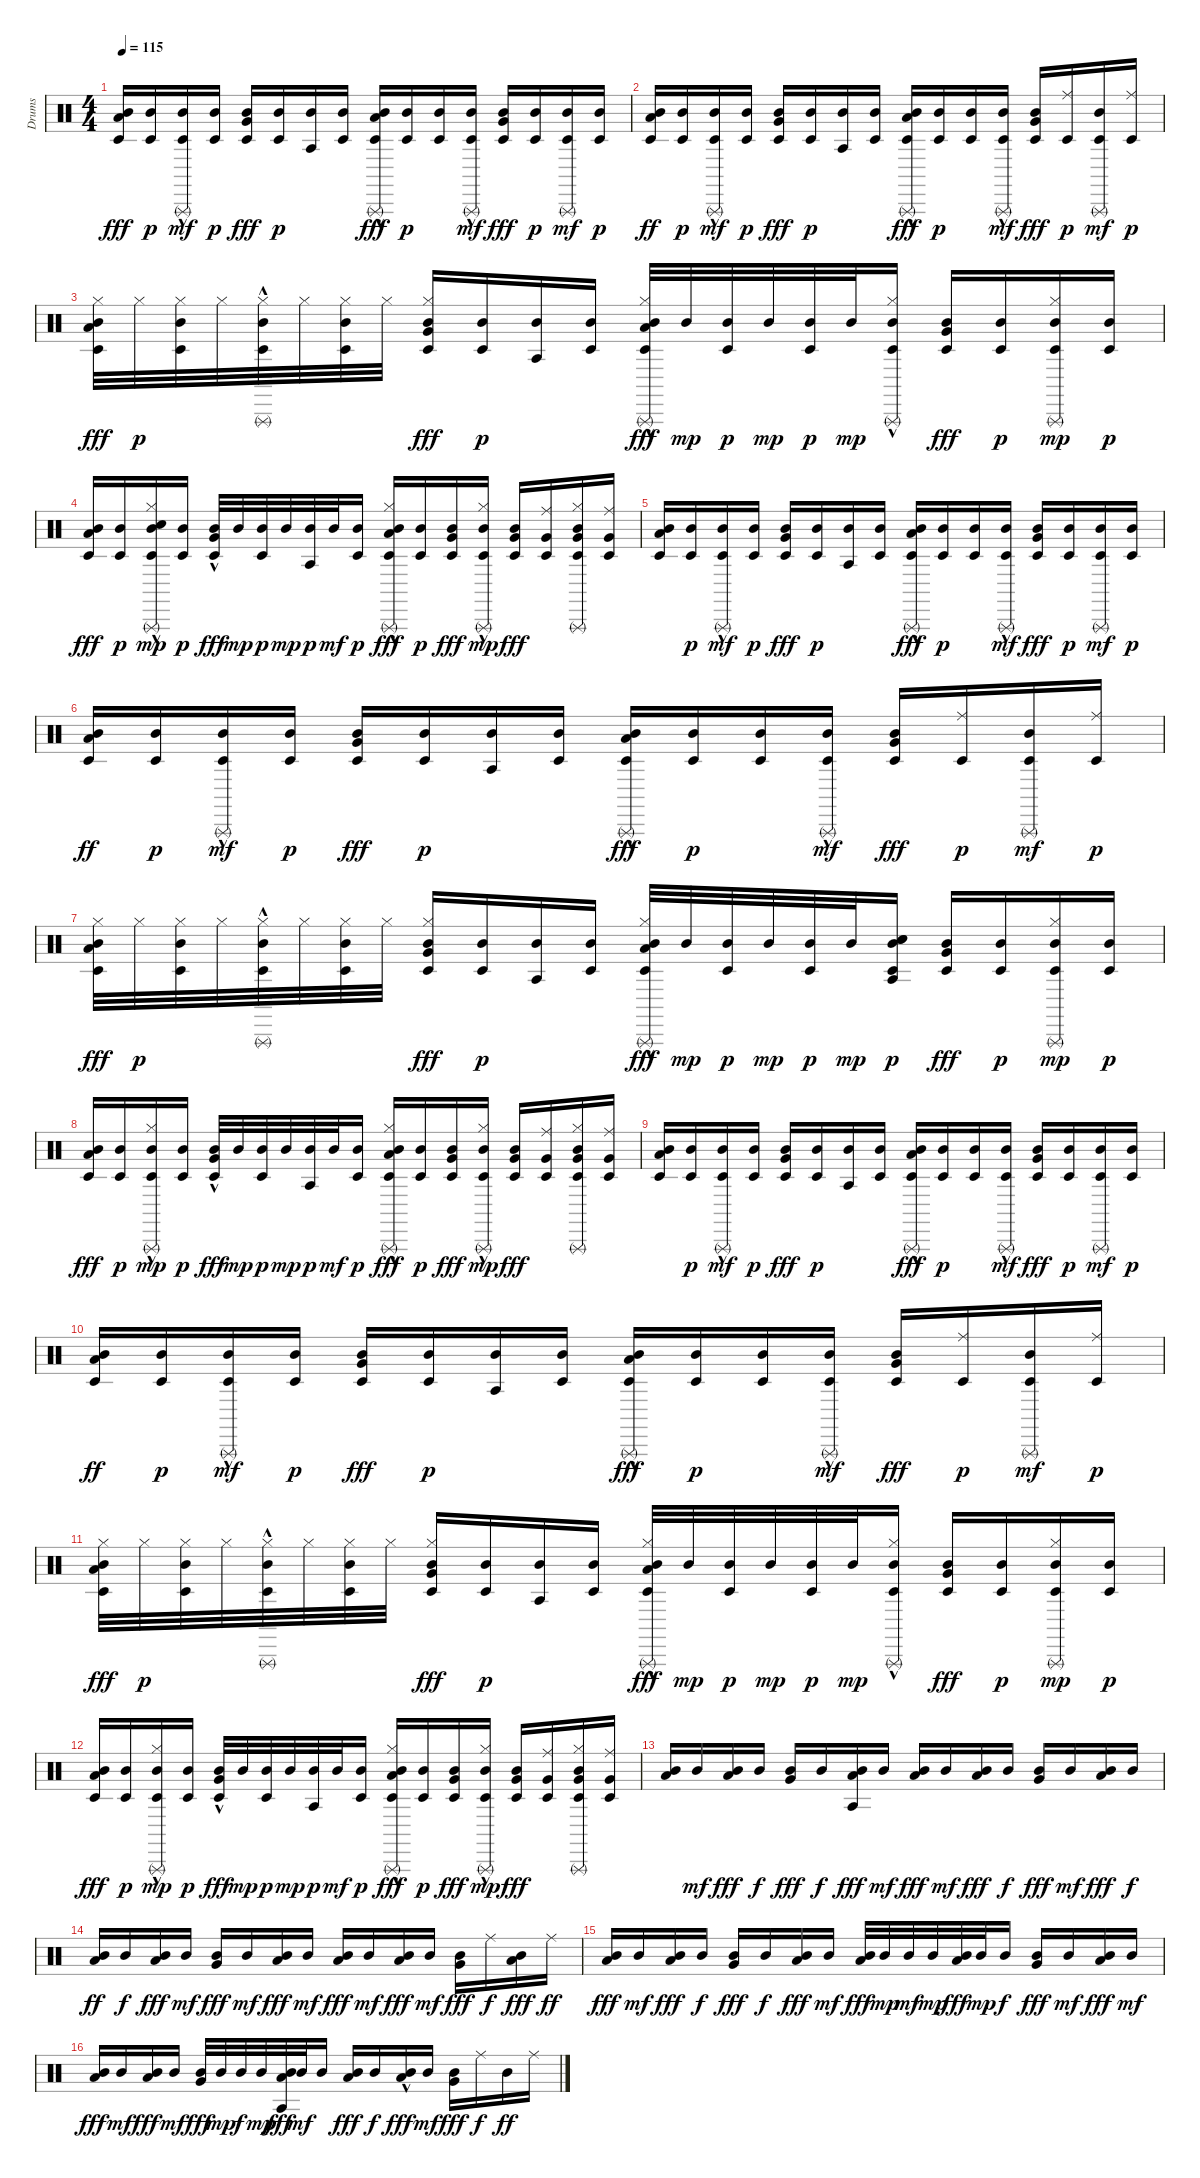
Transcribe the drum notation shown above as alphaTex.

\track ("Drums" "Drums") {instrument percussion}
\staff {score}
\articulation defaults
\ts (4 4)
\tempo 115
\clef neutral
\ks c
("Mid Tom (hit)" "Timbale low (hit)" "Low Floor Tom (hit)").16{dy fff} ("Mid Tom (hit)" "Timbale low (hit)").16{dy p} ("Mid Tom (hit)" "Timbale low (hit)" "Triangle (rnute)"{hac}).16{dy mf} ("Mid Tom (hit)" "Timbale low (hit)").16{dy p} ("Mid Tom (hit)" "Timbale low (hit)" "Very Low Tom (hit)").16{dy fff} ("Mid Tom (hit)" "Timbale low (hit)").16{dy p} ("Mid Tom (hit)" "Agogo tow (hit)").16 ("Mid Tom (hit)" "Timbale low (hit)").16 ("Mid Tom (hit)" "Timbale low (hit)" "Triangle (rnute)"{hac} "Low Floor Tom (hit)").16{dy fff} ("Mid Tom (hit)" "Timbale low (hit)").16{dy p} ("Mid Tom (hit)" "Timbale low (hit)").16 ("Mid Tom (hit)" "Timbale low (hit)" "Triangle (rnute)"{hac}).16{dy mf} ("Mid Tom (hit)" "Timbale low (hit)" "Very Low Tom (hit)").16{dy fff} ("Mid Tom (hit)" "Timbale low (hit)").16{dy p} ("Mid Tom (hit)" "Timbale low (hit)" "Triangle (rnute)").16{dy mf} ("Mid Tom (hit)" "Timbale low (hit)").16{dy p} |
("Mid Tom (hit)" "Timbale low (hit)" "Low Floor Tom (hit)").16{dy ff} ("Mid Tom (hit)" "Timbale low (hit)").16{dy p} ("Mid Tom (hit)" "Timbale low (hit)" "Triangle (rnute)"{hac}).16{dy mf} ("Mid Tom (hit)" "Timbale low (hit)").16{dy p} ("Mid Tom (hit)" "Timbale low (hit)" "Very Low Tom (hit)").16{dy fff} ("Mid Tom (hit)" "Timbale low (hit)").16{dy p} ("Mid Tom (hit)" "Agogo tow (hit)").16 ("Mid Tom (hit)" "Timbale low (hit)").16 ("Mid Tom (hit)" "Timbale low (hit)" "Triangle (rnute)"{hac} "Low Floor Tom (hit)").16{dy fff} ("Mid Tom (hit)" "Timbale low (hit)").16{dy p} ("Mid Tom (hit)" "Timbale low (hit)").16 ("Mid Tom (hit)" "Timbale low (hit)" "Triangle (rnute)"{hac}).16{dy mf} ("Mid Tom (hit)" "Timbale low (hit)" "Very Low Tom (hit)").16{dy fff} ("Ride (middle)" "Timbale low (hit)").16{dy p} ("Mid Tom (hit)" "Timbale low (hit)" "Triangle (rnute)").16{dy mf} ("Ride (middle)" "Timbale low (hit)").16{dy p} |
("Mid Tom (hit)" "Timbale low (hit)" "Hi-Hat (closed)" "Low Floor Tom (hit)").32{dy fff} "Hi-Hat (closed)".32{dy p} ("Mid Tom (hit)" "Timbale low (hit)" "Hi-Hat (closed)").32 "Hi-Hat (closed)".32 ("Mid Tom (hit)" "Timbale low (hit)" "Triangle (rnute)"{hac} "Hi-Hat (closed)").32 "Hi-Hat (closed)".32 ("Mid Tom (hit)" "Timbale low (hit)" "Hi-Hat (closed)").32 "Hi-Hat (closed)".32 ("Mid Tom (hit)" "Timbale low (hit)" "Hi-Hat (closed)" "Very Low Tom (hit)").16{dy fff} ("Mid Tom (hit)" "Timbale low (hit)").16{dy p} ("Mid Tom (hit)" "Agogo tow (hit)").16 ("Mid Tom (hit)" "Timbale low (hit)").16 ("Mid Tom (hit)" "Timbale low (hit)" "Triangle (rnute)"{hac} "Hi-Hat (closed)"{hac} "Low Floor Tom (hit)").32{dy fff} "Mid Tom (hit)".32{dy mp} ("Mid Tom (hit)" "Timbale low (hit)").32{dy p} "Mid Tom (hit)".32{dy mp} ("Mid Tom (hit)" "Timbale low (hit)").32{dy p} "Mid Tom (hit)".32{dy mp} ("Mid Tom (hit)" "Timbale low (hit)" "Triangle (rnute)"{hac} "Hi-Hat (closed)"{hac}).16 ("Mid Tom (hit)" "Timbale low (hit)" "Very Low Tom (hit)").16{dy fff} ("Mid Tom (hit)" "Timbale low (hit)").16{dy p} ("Mid Tom (hit)" "Timbale low (hit)" "Triangle (rnute)" "Hi-Hat (closed)").16{dy mp} ("Mid Tom (hit)" "Timbale low (hit)").16{dy p} |
("Mid Tom (hit)" "Timbale low (hit)" "Low Floor Tom (hit)").16{dy fff} ("Mid Tom (hit)" "Timbale low (hit)").16{dy p} ("Mid Tom (hit)" "Timbale low (hit)" "Snare (hit)" "Triangle (rnute)"{hac} "Hi-Hat (closed)"{hac}).16{dy mp} ("Mid Tom (hit)" "Timbale low (hit)").16{dy p} ("Mid Tom (hit)" "Timbale low (hit)" "Very Low Tom (hit)"{hac}).32{dy fff} "Mid Tom (hit)".32{dy mp} ("Mid Tom (hit)" "Timbale low (hit)").32{dy p} "Mid Tom (hit)".32{dy mp} ("Mid Tom (hit)" "Agogo tow (hit)").32{dy p} "Mid Tom (hit)".32{dy mf} ("Mid Tom (hit)" "Timbale low (hit)").16{dy p} ("Mid Tom (hit)" "Timbale low (hit)" "Triangle (rnute)"{hac} "Hi-Hat (closed)"{hac} "Low Floor Tom (hit)").16{dy fff} ("Mid Tom (hit)" "Timbale low (hit)").16{dy p} ("Mid Tom (hit)" "Timbale low (hit)" "Very Low Tom (hit)").16{dy fff} ("Mid Tom (hit)" "Timbale low (hit)" "Triangle (rnute)"{hac} "Hi-Hat (closed)"{hac}).16{dy mp} ("Mid Tom (hit)" "Timbale low (hit)" "Very Low Tom (hit)").16{dy fff} ("Ride (middle)" "Timbale low (hit)" "Very Low Tom (hit)").16 ("Mid Tom (hit)" "Timbale low (hit)" "Triangle (rnute)" "Hi-Hat (closed)" "Very Low Tom (hit)").16 ("Ride (middle)" "Timbale low (hit)" "Very Low Tom (hit)").16 |
("Mid Tom (hit)" "Timbale low (hit)" "Low Floor Tom (hit)").16 ("Mid Tom (hit)" "Timbale low (hit)").16{dy p} ("Mid Tom (hit)" "Timbale low (hit)" "Triangle (rnute)"{hac}).16{dy mf} ("Mid Tom (hit)" "Timbale low (hit)").16{dy p} ("Mid Tom (hit)" "Timbale low (hit)" "Very Low Tom (hit)").16{dy fff} ("Mid Tom (hit)" "Timbale low (hit)").16{dy p} ("Mid Tom (hit)" "Agogo tow (hit)").16 ("Mid Tom (hit)" "Timbale low (hit)").16 ("Mid Tom (hit)" "Timbale low (hit)" "Triangle (rnute)"{hac} "Low Floor Tom (hit)").16{dy fff} ("Mid Tom (hit)" "Timbale low (hit)").16{dy p} ("Mid Tom (hit)" "Timbale low (hit)").16 ("Mid Tom (hit)" "Timbale low (hit)" "Triangle (rnute)"{hac}).16{dy mf} ("Mid Tom (hit)" "Timbale low (hit)" "Very Low Tom (hit)").16{dy fff} ("Mid Tom (hit)" "Timbale low (hit)").16{dy p} ("Mid Tom (hit)" "Timbale low (hit)" "Triangle (rnute)").16{dy mf} ("Mid Tom (hit)" "Timbale low (hit)").16{dy p} |
("Mid Tom (hit)" "Timbale low (hit)" "Low Floor Tom (hit)").16{dy ff} ("Mid Tom (hit)" "Timbale low (hit)").16{dy p} ("Mid Tom (hit)" "Timbale low (hit)" "Triangle (rnute)"{hac}).16{dy mf} ("Mid Tom (hit)" "Timbale low (hit)").16{dy p} ("Mid Tom (hit)" "Timbale low (hit)" "Very Low Tom (hit)").16{dy fff} ("Mid Tom (hit)" "Timbale low (hit)").16{dy p} ("Mid Tom (hit)" "Agogo tow (hit)").16 ("Mid Tom (hit)" "Timbale low (hit)").16 ("Mid Tom (hit)" "Timbale low (hit)" "Triangle (rnute)"{hac} "Low Floor Tom (hit)").16{dy fff} ("Mid Tom (hit)" "Timbale low (hit)").16{dy p} ("Mid Tom (hit)" "Timbale low (hit)").16 ("Mid Tom (hit)" "Timbale low (hit)" "Triangle (rnute)"{hac}).16{dy mf} ("Mid Tom (hit)" "Timbale low (hit)" "Very Low Tom (hit)").16{dy fff} ("Ride (middle)" "Timbale low (hit)").16{dy p} ("Mid Tom (hit)" "Timbale low (hit)" "Triangle (rnute)").16{dy mf} ("Ride (middle)" "Timbale low (hit)").16{dy p} |
("Mid Tom (hit)" "Timbale low (hit)" "Hi-Hat (closed)" "Low Floor Tom (hit)").32{dy fff} "Hi-Hat (closed)".32{dy p} ("Mid Tom (hit)" "Timbale low (hit)" "Hi-Hat (closed)").32 "Hi-Hat (closed)".32 ("Mid Tom (hit)" "Timbale low (hit)" "Triangle (rnute)"{hac} "Hi-Hat (closed)").32 "Hi-Hat (closed)".32 ("Mid Tom (hit)" "Timbale low (hit)" "Hi-Hat (closed)").32 "Hi-Hat (closed)".32 ("Mid Tom (hit)" "Timbale low (hit)" "Hi-Hat (closed)" "Very Low Tom (hit)").16{dy fff} ("Mid Tom (hit)" "Timbale low (hit)").16{dy p} ("Mid Tom (hit)" "Agogo tow (hit)").16 ("Mid Tom (hit)" "Timbale low (hit)").16 ("Mid Tom (hit)" "Timbale low (hit)" "Triangle (rnute)"{hac} "Hi-Hat (closed)"{hac} "Low Floor Tom (hit)").32{dy fff} "Mid Tom (hit)".32{dy mp} ("Mid Tom (hit)" "Timbale low (hit)").32{dy p} "Mid Tom (hit)".32{dy mp} ("Mid Tom (hit)" "Timbale low (hit)").32{dy p} "Mid Tom (hit)".32{dy mp} ("Mid Tom (hit)" "Timbale low (hit)" "Snare (hit)" "Snare (hit)" "Agogo tow (hit)").16{dy p} ("Mid Tom (hit)" "Timbale low (hit)" "Very Low Tom (hit)").16{dy fff} ("Mid Tom (hit)" "Timbale low (hit)").16{dy p} ("Mid Tom (hit)" "Timbale low (hit)" "Triangle (rnute)" "Hi-Hat (closed)").16{dy mp} ("Mid Tom (hit)" "Timbale low (hit)").16{dy p} |
("Mid Tom (hit)" "Timbale low (hit)" "Low Floor Tom (hit)").16{dy fff} ("Mid Tom (hit)" "Timbale low (hit)").16{dy p} ("Mid Tom (hit)" "Timbale low (hit)" "Triangle (rnute)"{hac} "Hi-Hat (closed)"{hac}).16{dy mp} ("Mid Tom (hit)" "Timbale low (hit)").16{dy p} ("Mid Tom (hit)" "Timbale low (hit)" "Very Low Tom (hit)"{hac}).32{dy fff} "Mid Tom (hit)".32{dy mp} ("Mid Tom (hit)" "Timbale low (hit)").32{dy p} "Mid Tom (hit)".32{dy mp} ("Mid Tom (hit)" "Agogo tow (hit)").32{dy p} "Mid Tom (hit)".32{dy mf} ("Mid Tom (hit)" "Timbale low (hit)").16{dy p} ("Mid Tom (hit)" "Timbale low (hit)" "Triangle (rnute)"{hac} "Hi-Hat (closed)"{hac} "Low Floor Tom (hit)").16{dy fff} ("Mid Tom (hit)" "Timbale low (hit)").16{dy p} ("Mid Tom (hit)" "Timbale low (hit)" "Very Low Tom (hit)").16{dy fff} ("Mid Tom (hit)" "Timbale low (hit)" "Triangle (rnute)"{hac} "Hi-Hat (closed)"{hac}).16{dy mp} ("Mid Tom (hit)" "Timbale low (hit)" "Very Low Tom (hit)").16{dy fff} ("Ride (middle)" "Timbale low (hit)" "Very Low Tom (hit)").16 ("Mid Tom (hit)" "Timbale low (hit)" "Triangle (rnute)" "Hi-Hat (closed)" "Very Low Tom (hit)").16 ("Ride (middle)" "Timbale low (hit)" "Very Low Tom (hit)").16 |
("Mid Tom (hit)" "Timbale low (hit)" "Low Floor Tom (hit)").16 ("Mid Tom (hit)" "Timbale low (hit)").16{dy p} ("Mid Tom (hit)" "Timbale low (hit)" "Triangle (rnute)"{hac}).16{dy mf} ("Mid Tom (hit)" "Timbale low (hit)").16{dy p} ("Mid Tom (hit)" "Timbale low (hit)" "Very Low Tom (hit)").16{dy fff} ("Mid Tom (hit)" "Timbale low (hit)").16{dy p} ("Mid Tom (hit)" "Agogo tow (hit)").16 ("Mid Tom (hit)" "Timbale low (hit)").16 ("Mid Tom (hit)" "Timbale low (hit)" "Triangle (rnute)"{hac} "Low Floor Tom (hit)").16{dy fff} ("Mid Tom (hit)" "Timbale low (hit)").16{dy p} ("Mid Tom (hit)" "Timbale low (hit)").16 ("Mid Tom (hit)" "Timbale low (hit)" "Triangle (rnute)"{hac}).16{dy mf} ("Mid Tom (hit)" "Timbale low (hit)" "Very Low Tom (hit)").16{dy fff} ("Mid Tom (hit)" "Timbale low (hit)").16{dy p} ("Mid Tom (hit)" "Timbale low (hit)" "Triangle (rnute)").16{dy mf} ("Mid Tom (hit)" "Timbale low (hit)").16{dy p} |
("Mid Tom (hit)" "Timbale low (hit)" "Low Floor Tom (hit)").16{dy ff} ("Mid Tom (hit)" "Timbale low (hit)").16{dy p} ("Mid Tom (hit)" "Timbale low (hit)" "Triangle (rnute)"{hac}).16{dy mf} ("Mid Tom (hit)" "Timbale low (hit)").16{dy p} ("Mid Tom (hit)" "Timbale low (hit)" "Very Low Tom (hit)").16{dy fff} ("Mid Tom (hit)" "Timbale low (hit)").16{dy p} ("Mid Tom (hit)" "Agogo tow (hit)").16 ("Mid Tom (hit)" "Timbale low (hit)").16 ("Mid Tom (hit)" "Timbale low (hit)" "Triangle (rnute)"{hac} "Low Floor Tom (hit)").16{dy fff} ("Mid Tom (hit)" "Timbale low (hit)").16{dy p} ("Mid Tom (hit)" "Timbale low (hit)").16 ("Mid Tom (hit)" "Timbale low (hit)" "Triangle (rnute)"{hac}).16{dy mf} ("Mid Tom (hit)" "Timbale low (hit)" "Very Low Tom (hit)").16{dy fff} ("Ride (middle)" "Timbale low (hit)").16{dy p} ("Mid Tom (hit)" "Timbale low (hit)" "Triangle (rnute)").16{dy mf} ("Ride (middle)" "Timbale low (hit)").16{dy p} |
("Mid Tom (hit)" "Timbale low (hit)" "Hi-Hat (closed)" "Low Floor Tom (hit)").32{dy fff} "Hi-Hat (closed)".32{dy p} ("Mid Tom (hit)" "Timbale low (hit)" "Hi-Hat (closed)").32 "Hi-Hat (closed)".32 ("Mid Tom (hit)" "Timbale low (hit)" "Triangle (rnute)"{hac} "Hi-Hat (closed)").32 "Hi-Hat (closed)".32 ("Mid Tom (hit)" "Timbale low (hit)" "Hi-Hat (closed)").32 "Hi-Hat (closed)".32 ("Mid Tom (hit)" "Timbale low (hit)" "Hi-Hat (closed)" "Very Low Tom (hit)").16{dy fff} ("Mid Tom (hit)" "Timbale low (hit)").16{dy p} ("Mid Tom (hit)" "Agogo tow (hit)").16 ("Mid Tom (hit)" "Timbale low (hit)").16 ("Mid Tom (hit)" "Timbale low (hit)" "Triangle (rnute)"{hac} "Hi-Hat (closed)"{hac} "Low Floor Tom (hit)").32{dy fff} "Mid Tom (hit)".32{dy mp} ("Mid Tom (hit)" "Timbale low (hit)").32{dy p} "Mid Tom (hit)".32{dy mp} ("Mid Tom (hit)" "Timbale low (hit)").32{dy p} "Mid Tom (hit)".32{dy mp} ("Mid Tom (hit)" "Timbale low (hit)" "Triangle (rnute)"{hac} "Hi-Hat (closed)"{hac}).16 ("Mid Tom (hit)" "Timbale low (hit)" "Very Low Tom (hit)").16{dy fff} ("Mid Tom (hit)" "Timbale low (hit)").16{dy p} ("Mid Tom (hit)" "Timbale low (hit)" "Triangle (rnute)" "Hi-Hat (closed)").16{dy mp} ("Mid Tom (hit)" "Timbale low (hit)").16{dy p} |
("Mid Tom (hit)" "Timbale low (hit)" "Low Floor Tom (hit)").16{dy fff} ("Mid Tom (hit)" "Timbale low (hit)").16{dy p} ("Mid Tom (hit)" "Timbale low (hit)" "Triangle (rnute)"{hac} "Hi-Hat (closed)"{hac}).16{dy mp} ("Mid Tom (hit)" "Timbale low (hit)").16{dy p} ("Mid Tom (hit)" "Timbale low (hit)" "Very Low Tom (hit)"{hac}).32{dy fff} "Mid Tom (hit)".32{dy mp} ("Mid Tom (hit)" "Timbale low (hit)").32{dy p} "Mid Tom (hit)".32{dy mp} ("Mid Tom (hit)" "Agogo tow (hit)").32{dy p} "Mid Tom (hit)".32{dy mf} ("Mid Tom (hit)" "Timbale low (hit)").16{dy p} ("Mid Tom (hit)" "Timbale low (hit)" "Triangle (rnute)"{hac} "Hi-Hat (closed)"{hac} "Low Floor Tom (hit)").16{dy fff} ("Mid Tom (hit)" "Timbale low (hit)").16{dy p} ("Mid Tom (hit)" "Timbale low (hit)" "Very Low Tom (hit)").16{dy fff} ("Mid Tom (hit)" "Timbale low (hit)" "Triangle (rnute)"{hac} "Hi-Hat (closed)"{hac}).16{dy mp} ("Mid Tom (hit)" "Timbale low (hit)" "Very Low Tom (hit)").16{dy fff} ("Ride (middle)" "Timbale low (hit)" "Very Low Tom (hit)").16 ("Mid Tom (hit)" "Timbale low (hit)" "Triangle (rnute)" "Hi-Hat (closed)" "Very Low Tom (hit)").16 ("Ride (middle)" "Timbale low (hit)" "Very Low Tom (hit)").16 |
("Mid Tom (hit)" "Low Floor Tom (hit)").16 "Mid Tom (hit)".16{dy mf} ("Mid Tom (hit)" "Low Floor Tom (hit)").16{dy fff} "Mid Tom (hit)".16{dy f} ("Mid Tom (hit)" "Very Low Tom (hit)").16{dy fff} "Mid Tom (hit)".16{dy f} ("Mid Tom (hit)" "Agogo tow (hit)" "Low Floor Tom (hit)").16{dy fff} "Mid Tom (hit)".16{dy mf} ("Mid Tom (hit)" "Low Floor Tom (hit)").16{dy fff} "Mid Tom (hit)".16{dy mf} ("Mid Tom (hit)" "Low Floor Tom (hit)").16{dy fff} "Mid Tom (hit)".16{dy f} ("Mid Tom (hit)" "Very Low Tom (hit)").16{dy fff} "Mid Tom (hit)".16{dy mf} ("Mid Tom (hit)" "Low Floor Tom (hit)").16{dy fff} "Mid Tom (hit)".16{dy f} |
("Mid Tom (hit)" "Low Floor Tom (hit)").16{dy ff} "Mid Tom (hit)".16{dy f} ("Mid Tom (hit)" "Low Floor Tom (hit)").16{dy fff} "Mid Tom (hit)".16{dy mf} ("Mid Tom (hit)" "Very Low Tom (hit)").16{dy fff} "Mid Tom (hit)".16{dy mf} ("Mid Tom (hit)" "Low Floor Tom (hit)").16{dy fff} "Mid Tom (hit)".16{dy mf} ("Mid Tom (hit)" "Low Floor Tom (hit)").16{dy fff} "Mid Tom (hit)".16{dy mf} ("Mid Tom (hit)" "Low Floor Tom (hit)").16{dy fff} "Mid Tom (hit)".16{dy mf} ("Mid Tom (hit)" "Very Low Tom (hit)").16{dy fff} "Ride (middle)".16{dy f} ("Mid Tom (hit)" "Low Floor Tom (hit)").16{dy fff} "Ride (middle)".16{dy ff} |
("Mid Tom (hit)" "Low Floor Tom (hit)").16{dy fff} "Mid Tom (hit)".16{dy mf} ("Mid Tom (hit)" "Low Floor Tom (hit)").16{dy fff} "Mid Tom (hit)".16{dy f} ("Mid Tom (hit)" "Very Low Tom (hit)").16{dy fff} "Mid Tom (hit)".16{dy f} ("Mid Tom (hit)" "Low Floor Tom (hit)").16{dy fff} "Mid Tom (hit)".16{dy mf} ("Mid Tom (hit)" "Low Floor Tom (hit)").32{dy fff} "Mid Tom (hit)".32{dy mp} "Mid Tom (hit)".32{dy mf} "Mid Tom (hit)".32{dy mp} ("Mid Tom (hit)" "Low Floor Tom (hit)").32{dy fff} "Mid Tom (hit)".32{dy mp} "Mid Tom (hit)".16{dy f} ("Mid Tom (hit)" "Very Low Tom (hit)").16{dy fff} "Mid Tom (hit)".16{dy mf} ("Mid Tom (hit)" "Low Floor Tom (hit)").16{dy fff} "Mid Tom (hit)".16{dy mf} |
("Mid Tom (hit)" "Low Floor Tom (hit)").16{dy fff} "Mid Tom (hit)".16{dy mf} ("Mid Tom (hit)" "Low Floor Tom (hit)").16{dy fff} "Mid Tom (hit)".16{dy mf} ("Mid Tom (hit)" "Very Low Tom (hit)").32{dy fff} "Mid Tom (hit)".32{dy mp} "Mid Tom (hit)".32{dy f} "Mid Tom (hit)".32{dy mp} ("Mid Tom (hit)" "Agogo tow (hit)" "Low Floor Tom (hit)").32{dy fff} "Mid Tom (hit)".32{dy mf} "Mid Tom (hit)".16 ("Mid Tom (hit)" "Low Floor Tom (hit)").16{dy fff} "Mid Tom (hit)".16{dy f} ("Mid Tom (hit)" "Low Floor Tom (hit)"{hac}).16{dy fff} "Mid Tom (hit)".16{dy mf} ("Mid Tom (hit)" "Very Low Tom (hit)").16{dy fff} "Ride (middle)".16{dy f} "Mid Tom (hit)".16{dy ff} "Ride (middle)".16
